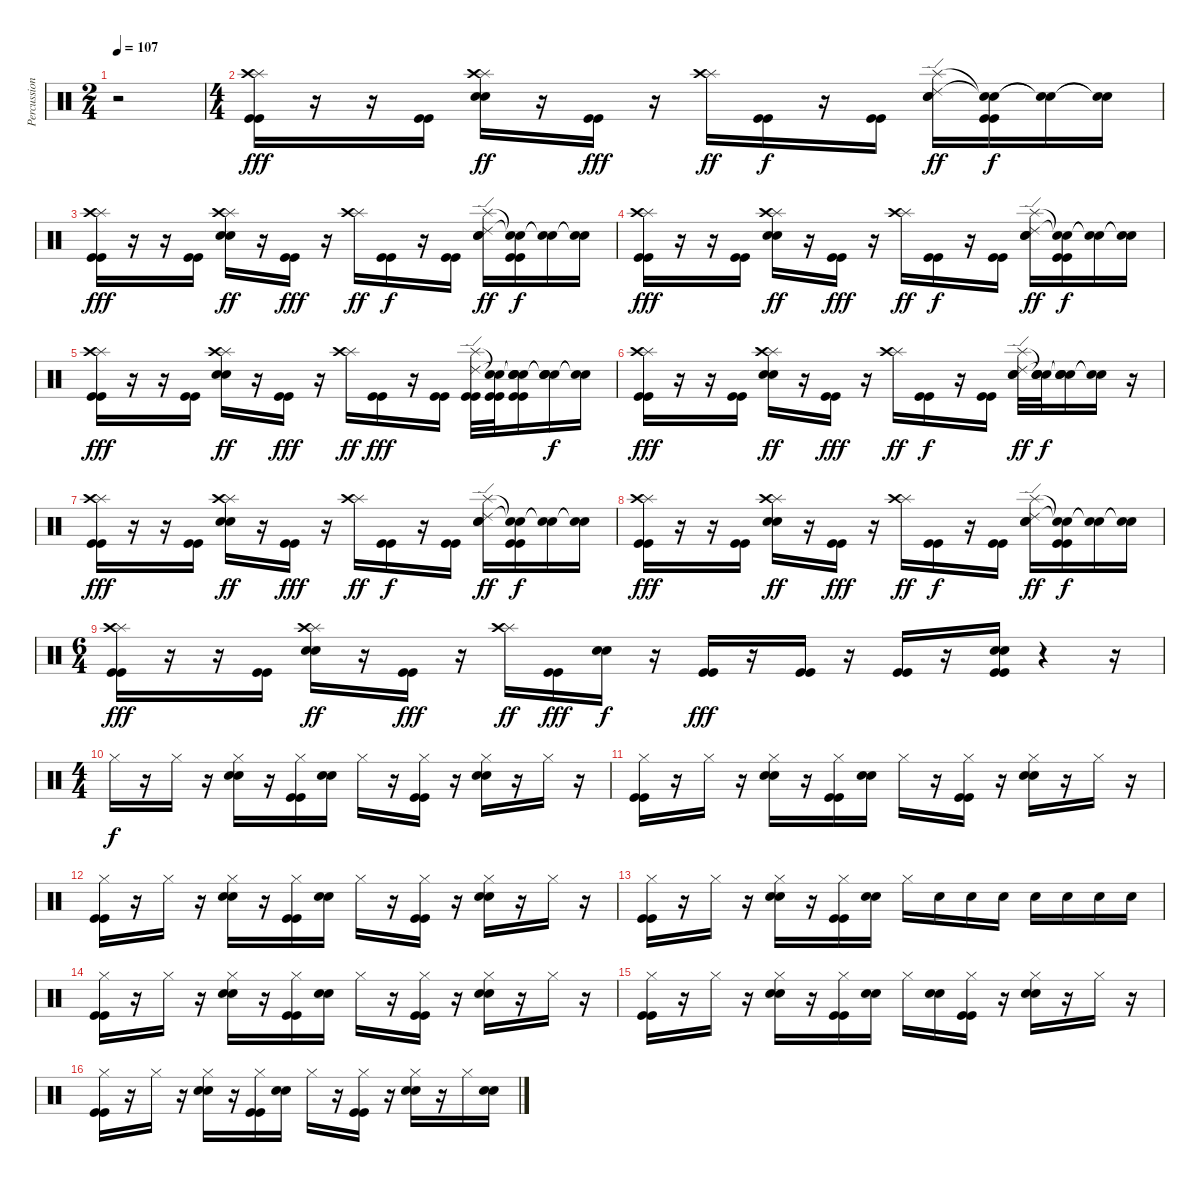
\track ("Percussions" "Percussion") {instrument percussion}
\staff {score}
\articulation defaults
\ts (2 4)
\tempo 107
\clef neutral
\ks c
r.2{dy f} |
\ts (4 4)
("Splash (hit)" "Crash high (hit)" "Kick (hit)" "Kick (hit)").16{dy fff} r.16 r.16 ("Kick (hit)" "Kick (hit)").16 ("Splash (hit)" "Crash high (hit)" "Electric Snare (hit)" "Electric Snare (hit)").16{dy ff} r.16 ("Kick (hit)" "Kick (hit)").16{dy fff} r.16 ("Splash (hit)" "Crash high (hit)").16{dy ff} ("Kick (hit)" "Kick (hit)").16{dy f} r.16 ("Kick (hit)" "Kick (hit)").16 ("Splash (hit)" "Ride (edge) 2" "Electric Snare (hit)" "Electric Snare (hit)").16{dy ff} ("Snare (hit)"{t} "Snare (hit)"{t} "Kick (hit)" "Kick (hit)").16{dy f} ("Snare (hit)"{t} "Snare (hit)"{t}).16 ("Snare (hit)"{t} "Snare (hit)"{t}).16 |
("Splash (hit)" "Crash high (hit)" "Kick (hit)" "Kick (hit)").16{dy fff} r.16 r.16 ("Kick (hit)" "Kick (hit)").16 ("Splash (hit)" "Crash high (hit)" "Electric Snare (hit)" "Electric Snare (hit)").16{dy ff} r.16 ("Kick (hit)" "Kick (hit)").16{dy fff} r.16 ("Splash (hit)" "Crash high (hit)").16{dy ff} ("Kick (hit)" "Kick (hit)").16{dy f} r.16 ("Kick (hit)" "Kick (hit)").16 ("Splash (hit)" "Ride (edge) 2" "Electric Snare (hit)" "Electric Snare (hit)").16{dy ff} ("Snare (hit)"{t} "Snare (hit)"{t} "Kick (hit)" "Kick (hit)").16{dy f} ("Snare (hit)"{t} "Snare (hit)"{t}).16 ("Snare (hit)"{t} "Snare (hit)"{t}).16 |
("Splash (hit)" "Crash high (hit)" "Kick (hit)" "Kick (hit)").16{dy fff} r.16 r.16 ("Kick (hit)" "Kick (hit)").16 ("Splash (hit)" "Crash high (hit)" "Electric Snare (hit)" "Electric Snare (hit)").16{dy ff} r.16 ("Kick (hit)" "Kick (hit)").16{dy fff} r.16 ("Splash (hit)" "Crash high (hit)").16{dy ff} ("Kick (hit)" "Kick (hit)").16{dy f} r.16 ("Kick (hit)" "Kick (hit)").16 ("Splash (hit)" "Ride (edge) 2" "Electric Snare (hit)" "Electric Snare (hit)").16{dy ff} ("Snare (hit)"{t} "Snare (hit)"{t} "Kick (hit)" "Kick (hit)").16{dy f} ("Snare (hit)"{t} "Snare (hit)"{t}).16 ("Snare (hit)"{t} "Snare (hit)"{t}).16 |
("Splash (hit)" "Crash high (hit)" "Kick (hit)" "Kick (hit)").16{dy fff} r.16 r.16 ("Kick (hit)" "Kick (hit)").16 ("Splash (hit)" "Crash high (hit)" "Electric Snare (hit)" "Electric Snare (hit)").16{dy ff} r.16 ("Kick (hit)" "Kick (hit)").16{dy fff} r.16 ("Splash (hit)" "Crash high (hit)").16{dy ff} ("Kick (hit)" "Kick (hit)").16{dy fff} r.16 ("Kick (hit)" "Kick (hit)").16 ("Splash (hit)" "Ride (edge) 2" "Kick (hit)" "Kick (hit)").32 ("Snare (hit)"{t} "Snare (hit)"{t} "Kick (hit)" "Kick (hit)").32 ("Snare (hit)"{t} "Snare (hit)"{t} "Electric Snare (hit)" "Electric Snare (hit)" "Kick (hit)" "Kick (hit)").16 ("Snare (hit)"{t} "Snare (hit)"{t} "Electric Snare (hit)" "Electric Snare (hit)").16{dy f} ("Snare (hit)"{t} "Snare (hit)"{t}).16 |
("Splash (hit)" "Crash high (hit)" "Kick (hit)" "Kick (hit)").16{dy fff} r.16 r.16 ("Kick (hit)" "Kick (hit)").16 ("Splash (hit)" "Crash high (hit)" "Electric Snare (hit)" "Electric Snare (hit)").16{dy ff} r.16 ("Kick (hit)" "Kick (hit)").16{dy fff} r.16 ("Splash (hit)" "Crash high (hit)").16{dy ff} ("Kick (hit)" "Kick (hit)").16{dy f} r.16 ("Kick (hit)" "Kick (hit)").16 ("Splash (hit)" "Ride (edge) 2" "Electric Snare (hit)" "Electric Snare (hit)").32{dy ff} ("Snare (hit)"{t} "Snare (hit)"{t} "Electric Snare (hit)" "Electric Snare (hit)").32{dy f} ("Snare (hit)"{t} "Snare (hit)"{t} "Electric Snare (hit)" "Electric Snare (hit)").16 ("Snare (hit)"{t} "Snare (hit)"{t}).16 r.16 |
("Splash (hit)" "Crash high (hit)" "Kick (hit)" "Kick (hit)").16{dy fff} r.16 r.16 ("Kick (hit)" "Kick (hit)").16 ("Splash (hit)" "Crash high (hit)" "Electric Snare (hit)" "Electric Snare (hit)").16{dy ff} r.16 ("Kick (hit)" "Kick (hit)").16{dy fff} r.16 ("Splash (hit)" "Crash high (hit)").16{dy ff} ("Kick (hit)" "Kick (hit)").16{dy f} r.16 ("Kick (hit)" "Kick (hit)").16 ("Splash (hit)" "Ride (edge) 2" "Electric Snare (hit)" "Electric Snare (hit)").16{dy ff} ("Snare (hit)"{t} "Snare (hit)"{t} "Kick (hit)" "Kick (hit)").16{dy f} ("Snare (hit)"{t} "Snare (hit)"{t}).16 ("Snare (hit)"{t} "Snare (hit)"{t}).16 |
("Splash (hit)" "Crash high (hit)" "Kick (hit)" "Kick (hit)").16{dy fff} r.16 r.16 ("Kick (hit)" "Kick (hit)").16 ("Splash (hit)" "Crash high (hit)" "Electric Snare (hit)" "Electric Snare (hit)").16{dy ff} r.16 ("Kick (hit)" "Kick (hit)").16{dy fff} r.16 ("Splash (hit)" "Crash high (hit)").16{dy ff} ("Kick (hit)" "Kick (hit)").16{dy f} r.16 ("Kick (hit)" "Kick (hit)").16 ("Splash (hit)" "Ride (edge) 2" "Electric Snare (hit)" "Electric Snare (hit)").16{dy ff} ("Snare (hit)"{t} "Snare (hit)"{t} "Kick (hit)" "Kick (hit)").16{dy f} ("Snare (hit)"{t} "Snare (hit)"{t}).16 ("Snare (hit)"{t} "Snare (hit)"{t}).16 |
\ts (6 4)
("Splash (hit)" "Crash high (hit)" "Kick (hit)" "Kick (hit)").16{dy fff} r.16 r.16 ("Kick (hit)" "Kick (hit)").16 ("Splash (hit)" "Crash high (hit)" "Electric Snare (hit)" "Electric Snare (hit)").16{dy ff} r.16 ("Kick (hit)" "Kick (hit)").16{dy fff} r.16 ("Splash (hit)" "Crash high (hit)").16{dy ff} ("Kick (hit)" "Kick (hit)").16{dy fff} ("Electric Snare (hit)" "Electric Snare (hit)").16{dy f} r.16 ("Kick (hit)" "Kick (hit)").16{dy fff} r.16 ("Kick (hit)" "Kick (hit)").16 r.16 ("Kick (hit)" "Kick (hit)").16 r.16 ("Electric Snare (hit)" "Electric Snare (hit)" "Kick (hit)" "Kick (hit)").16 r.4 r.16 |
\ts (4 4)
"Hi-Hat (closed)".16{dy f} r.16 "Hi-Hat (closed)".16 r.16 ("Hi-Hat (closed)" "Electric Snare (hit)" "Electric Snare (hit)").16 r.16 ("Hi-Hat (closed)" "Kick (hit)" "Kick (hit)").16 ("Electric Snare (hit)" "Electric Snare (hit)").16 "Hi-Hat (closed)".16 r.16 ("Hi-Hat (closed)" "Kick (hit)" "Kick (hit)").16 r.16 ("Hi-Hat (closed)" "Electric Snare (hit)" "Electric Snare (hit)").16 r.16 "Hi-Hat (closed)".16 r.16 |
("Hi-Hat (closed)" "Kick (hit)" "Kick (hit)").16 r.16 "Hi-Hat (closed)".16 r.16 ("Hi-Hat (closed)" "Electric Snare (hit)" "Electric Snare (hit)").16 r.16 ("Hi-Hat (closed)" "Kick (hit)" "Kick (hit)").16 ("Electric Snare (hit)" "Electric Snare (hit)").16 "Hi-Hat (closed)".16 r.16 ("Hi-Hat (closed)" "Kick (hit)" "Kick (hit)").16 r.16 ("Hi-Hat (closed)" "Electric Snare (hit)" "Electric Snare (hit)").16 r.16 "Hi-Hat (closed)".16 r.16 |
("Hi-Hat (closed)" "Kick (hit)" "Kick (hit)").16 r.16 "Hi-Hat (closed)".16 r.16 ("Hi-Hat (closed)" "Electric Snare (hit)" "Electric Snare (hit)").16 r.16 ("Hi-Hat (closed)" "Kick (hit)" "Kick (hit)").16 ("Electric Snare (hit)" "Electric Snare (hit)").16 "Hi-Hat (closed)".16 r.16 ("Hi-Hat (closed)" "Kick (hit)" "Kick (hit)").16 r.16 ("Hi-Hat (closed)" "Electric Snare (hit)" "Electric Snare (hit)").16 r.16 "Hi-Hat (closed)".16 r.16 |
("Hi-Hat (closed)" "Kick (hit)" "Kick (hit)").16 r.16 "Hi-Hat (closed)".16 r.16 ("Hi-Hat (closed)" "Electric Snare (hit)" "Electric Snare (hit)").16 r.16 ("Hi-Hat (closed)" "Kick (hit)" "Kick (hit)").16 ("Electric Snare (hit)" "Electric Snare (hit)").16 "Hi-Hat (closed)".16 "Electric Snare (hit)".16 "Electric Snare (hit)".16 "Electric Snare (hit)".16 "Electric Snare (hit)".16 "Electric Snare (hit)".16 "Electric Snare (hit)".16 "Electric Snare (hit)".16 |
("Hi-Hat (closed)" "Kick (hit)" "Kick (hit)").16 r.16 "Hi-Hat (closed)".16 r.16 ("Hi-Hat (closed)" "Electric Snare (hit)" "Electric Snare (hit)").16 r.16 ("Hi-Hat (closed)" "Kick (hit)" "Kick (hit)").16 ("Electric Snare (hit)" "Electric Snare (hit)").16 "Hi-Hat (closed)".16 r.16 ("Hi-Hat (closed)" "Kick (hit)" "Kick (hit)").16 r.16 ("Hi-Hat (closed)" "Electric Snare (hit)" "Electric Snare (hit)").16 r.16 "Hi-Hat (closed)".16 r.16 |
("Hi-Hat (closed)" "Kick (hit)" "Kick (hit)").16 r.16 "Hi-Hat (closed)".16 r.16 ("Hi-Hat (closed)" "Electric Snare (hit)" "Electric Snare (hit)").16 r.16 ("Hi-Hat (closed)" "Kick (hit)" "Kick (hit)").16 ("Electric Snare (hit)" "Electric Snare (hit)").16 "Hi-Hat (closed)".16 ("Electric Snare (hit)" "Electric Snare (hit)").16 ("Hi-Hat (closed)" "Kick (hit)" "Kick (hit)").16 r.16 ("Hi-Hat (closed)" "Electric Snare (hit)" "Electric Snare (hit)").16 r.16 "Hi-Hat (closed)".16 r.16 |
("Hi-Hat (closed)" "Kick (hit)" "Kick (hit)").16 r.16 "Hi-Hat (closed)".16 r.16 ("Hi-Hat (closed)" "Electric Snare (hit)" "Electric Snare (hit)").16 r.16 ("Hi-Hat (closed)" "Kick (hit)" "Kick (hit)").16 ("Electric Snare (hit)" "Electric Snare (hit)").16 "Hi-Hat (closed)".16 r.16 ("Hi-Hat (closed)" "Kick (hit)" "Kick (hit)").16 r.16 ("Hi-Hat (closed)" "Electric Snare (hit)" "Electric Snare (hit)").16 r.16 "Hi-Hat (closed)".16 ("Electric Snare (hit)" "Electric Snare (hit)").16
